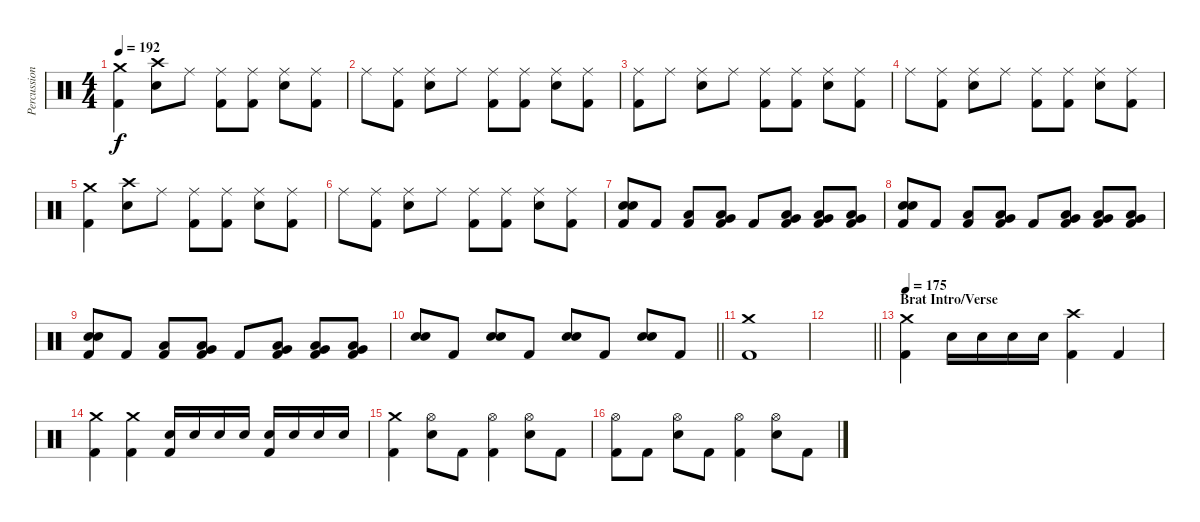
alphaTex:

\track ("Percussion" "Percussion") {instrument percussion}
\staff {score}
\articulation defaults
\ts (4 4)
\tempo 192
\clef neutral
\ks c
("Crash medium (hit)" "Kick (hit) 2").4{dy f} ("Crash high (hit)" "Electric Snare (hit)").8 "Ride (middle)".8 ("Ride (middle)" "Kick (hit) 2").8 ("Ride (middle)" "Kick (hit) 2").8 ("Ride (middle)" "Electric Snare (hit)").8 ("Ride (middle)" "Kick (hit) 2").8 |
"Ride (middle)".8 ("Ride (middle)" "Kick (hit) 2").8 ("Ride (middle)" "Electric Snare (hit)").8 "Ride (middle)".8 ("Ride (middle)" "Kick (hit) 2").8 ("Ride (middle)" "Kick (hit) 2").8 ("Ride (middle)" "Electric Snare (hit)").8 ("Ride (middle)" "Kick (hit) 2").8 |
("Ride (middle)" "Kick (hit) 2").8 "Ride (middle)".8 ("Ride (middle)" "Electric Snare (hit)").8 "Ride (middle)".8 ("Ride (middle)" "Kick (hit) 2").8 ("Ride (middle)" "Kick (hit) 2").8 ("Ride (middle)" "Electric Snare (hit)").8 ("Ride (middle)" "Kick (hit) 2").8 |
"Ride (middle)".8 ("Ride (middle)" "Kick (hit) 2").8 ("Ride (middle)" "Electric Snare (hit)").8 "Ride (middle)".8 ("Ride (middle)" "Kick (hit) 2").8 ("Ride (middle)" "Kick (hit) 2").8 ("Ride (middle)" "Electric Snare (hit)").8 ("Ride (middle)" "Kick (hit) 2").8 |
("Crash medium (hit)" "Kick (hit) 2").4 ("Crash high (hit)" "Electric Snare (hit)").8 "Ride (middle)".8 ("Ride (middle)" "Kick (hit) 2").8 ("Ride (middle)" "Kick (hit) 2").8 ("Ride (middle)" "Electric Snare (hit)").8 ("Ride (middle)" "Kick (hit) 2").8 |
"Ride (middle)".8 ("Ride (middle)" "Kick (hit) 2").8 ("Ride (middle)" "Electric Snare (hit)").8 "Ride (middle)".8 ("Ride (middle)" "Kick (hit) 2").8 ("Ride (middle)" "Kick (hit) 2").8 ("Ride (middle)" "Electric Snare (hit)").8 ("Ride (middle)" "Kick (hit) 2").8 |
("Electric Snare (hit)" "Electric Snare (hit)" "Kick (hit) 2").8 "Kick (hit) 2".8 ("Low Tom (hit)" "Kick (hit) 2").8 ("Low Tom (hit)" "Very Low Tom (hit)" "Kick (hit) 2").8 "Kick (hit) 2".8 ("Very Low Tom (hit)" "Low Floor Tom (hit)" "Kick (hit) 2").8 ("Very Low Tom (hit)" "Low Floor Tom (hit)" "Kick (hit) 2").8 ("Very Low Tom (hit)" "Low Floor Tom (hit)" "Kick (hit) 2").8 |
("Electric Snare (hit)" "Electric Snare (hit)" "Kick (hit) 2").8 "Kick (hit) 2".8 ("Low Tom (hit)" "Kick (hit) 2").8 ("Low Tom (hit)" "Very Low Tom (hit)" "Kick (hit) 2").8 "Kick (hit) 2".8 ("Very Low Tom (hit)" "Low Floor Tom (hit)" "Kick (hit) 2").8 ("Very Low Tom (hit)" "Low Floor Tom (hit)" "Kick (hit) 2").8 ("Very Low Tom (hit)" "Low Floor Tom (hit)" "Kick (hit) 2").8 |
("Electric Snare (hit)" "Electric Snare (hit)" "Kick (hit) 2").8 "Kick (hit) 2".8 ("Low Tom (hit)" "Kick (hit) 2").8 ("Low Tom (hit)" "Very Low Tom (hit)" "Kick (hit) 2").8 "Kick (hit) 2".8 ("Very Low Tom (hit)" "Low Floor Tom (hit)" "Kick (hit) 2").8 ("Very Low Tom (hit)" "Low Floor Tom (hit)" "Kick (hit) 2").8 ("Very Low Tom (hit)" "Low Floor Tom (hit)" "Kick (hit) 2").8 |
\barLineRight lightlight
("Electric Snare (hit)" "Electric Snare (hit)").8 "Kick (hit) 2".8 ("Electric Snare (hit)" "Electric Snare (hit)").8 "Kick (hit) 2".8 ("Electric Snare (hit)" "Electric Snare (hit)").8 "Kick (hit) 2".8 ("Electric Snare (hit)" "Electric Snare (hit)").8 "Kick (hit) 2".8 |
("Crash medium (hit)" "Kick (hit) 2").1 |
\barLineRight lightlight
|
\section ("" "Brat Intro/Verse")
\tempo 175
("Crash medium (hit)" "Kick (hit) 2").4 "Electric Snare (hit)".16 "Electric Snare (hit)".16 "Electric Snare (hit)".16 "Electric Snare (hit)".16 ("Crash high (hit)" "Kick (hit) 2").4 "Kick (hit) 2".4 |
("Crash medium (hit)" "Kick (hit) 2").4 ("Crash medium (hit)" "Kick (hit) 2").4 ("Electric Snare (hit)" "Kick (hit) 2").16 "Electric Snare (hit)".16 "Electric Snare (hit)".16 "Electric Snare (hit)".16 ("Electric Snare (hit)" "Kick (hit) 2").16 "Electric Snare (hit)".16 "Electric Snare (hit)".16 "Electric Snare (hit)".16 |
("Crash medium (hit)" "Kick (hit) 2").4 ("Hi-Hat (open)" "Electric Snare (hit)").8 "Kick (hit) 2".8 ("Hi-Hat (open)" "Kick (hit) 2").4 ("Hi-Hat (open)" "Electric Snare (hit)").8 "Kick (hit) 2".8 |
("Hi-Hat (open)" "Kick (hit) 2").8 "Kick (hit) 2".8 ("Hi-Hat (open)" "Electric Snare (hit)").8 "Kick (hit) 2".8 ("Hi-Hat (open)" "Kick (hit) 2").4 ("Hi-Hat (open)" "Electric Snare (hit)").8 "Kick (hit) 2".8
